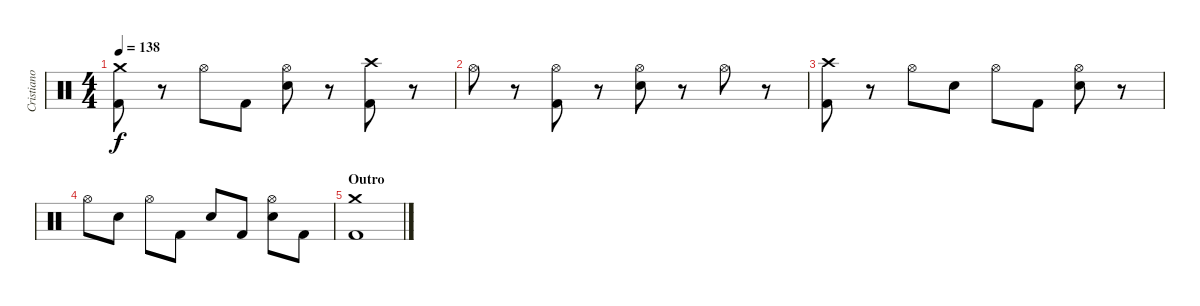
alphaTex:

\track ("Cristiano Mozatti" "Cristiano ") {instrument percussion}
\staff {score}
\articulation defaults
\ts (4 4)
\tempo 138
\clef neutral
\ks c
("Crash medium (hit)" "Kick (hit) 2").8{dy f} r.8 "Hi-Hat (open)".8 "Kick (hit) 2".8 ("Hi-Hat (open)" "Snare (hit) 2").8 r.8 ("Crash high (hit)" "Kick (hit) 2").8 r.8 |
"Hi-Hat (open)".8 r.8 ("Hi-Hat (open)" "Kick (hit) 2").8 r.8 ("Hi-Hat (open)" "Snare (hit) 2").8 r.8 "Hi-Hat (open)".8 r.8 |
("Crash high (hit)" "Kick (hit) 2").8 r.8 "Hi-Hat (open)".8 "Snare (hit) 2".8 "Hi-Hat (open)".8 "Kick (hit) 2".8 ("Hi-Hat (open)" "Snare (hit) 2").8 r.8 |
"Hi-Hat (open)".8 "Snare (hit) 2".8 "Hi-Hat (open)".8 "Kick (hit) 2".8 "Snare (hit) 2".8 "Kick (hit) 2".8 ("Hi-Hat (open)" "Snare (hit) 2").8 "Kick (hit) 2".8 |
\section ("" "Outro")
("Crash medium (hit)" "Kick (hit) 2").1
